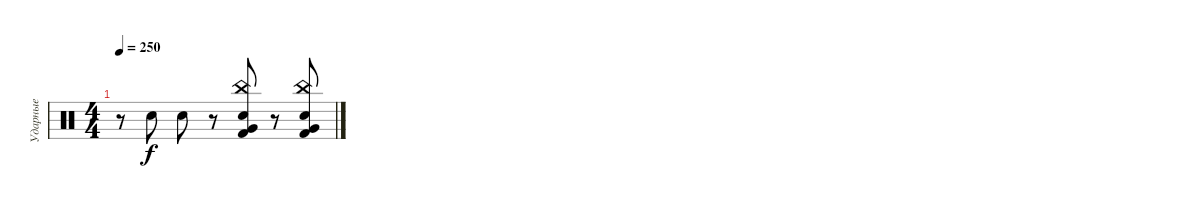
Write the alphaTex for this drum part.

\track ("Ударные" "Ударные") {instrument percussion}
\staff {score}
\articulation defaults
\ts (4 4)
\tempo 250
\clef neutral
\ks c
r.8{dy f} "Snare (hit) 2".8 "Snare (hit) 2".8 r.8 ("Very Low Tom (hit)" "China (hit)" "Snare (hit) 2" "Kick (hit) 2").8 r.8 ("Very Low Tom (hit)" "China (hit)" "Snare (hit) 2" "Kick (hit) 2").8
